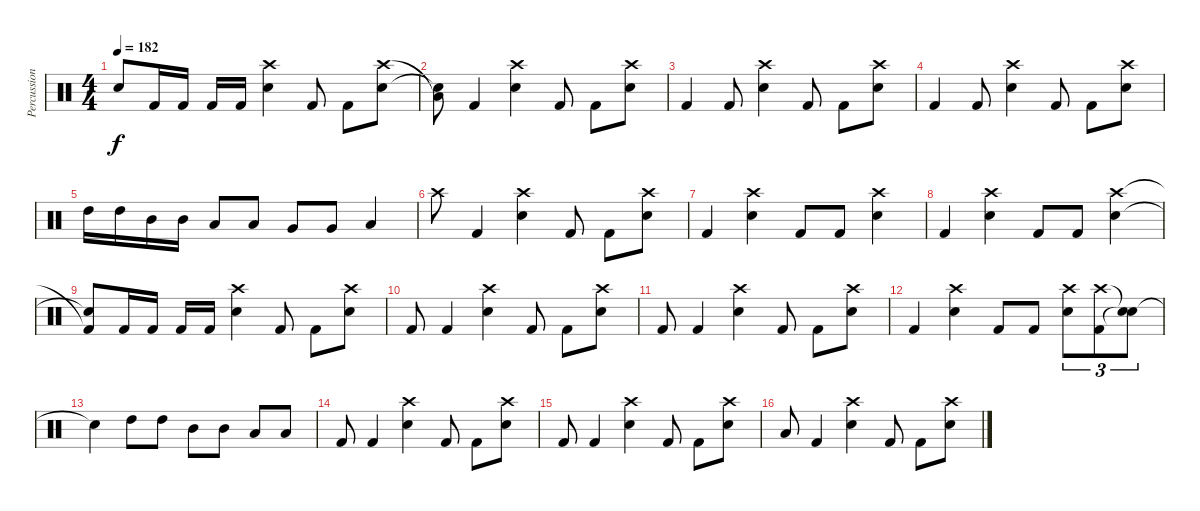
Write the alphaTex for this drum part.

\track ("Percussion" "Percussion") {instrument percussion}
\staff {score}
\articulation defaults
\ts (4 4)
\tempo 182
\clef neutral
\ks c "Snare (hit)"{t}.8{dy f} "Kick (hit) 2".16 "Kick (hit) 2".16 "Kick (hit) 2".16 "Kick (hit) 2".16
("Crash high (hit)" "Snare (hit) 2").4 "Kick (hit) 2".8 "Kick (hit) 2".8 ("Crash high (hit)" "Snare (hit) 2").8 |
("Low Floor Tom (hit)"{t} "Snare (hit)"{t}).8 "Kick (hit) 2".4 ("Crash high (hit)" "Snare (hit) 2").4 "Kick (hit) 2".8 "Kick (hit) 2".8 ("Crash high (hit)" "Snare (hit) 2").8 |
"Kick (hit) 2".4 "Kick (hit) 2".8 ("Crash high (hit)" "Snare (hit) 2").4 "Kick (hit) 2".8 "Kick (hit) 2".8 ("Crash high (hit)" "Snare (hit) 2").8 |
"Kick (hit) 2".4 "Kick (hit) 2".8 ("Crash high (hit)" "Snare (hit) 2").4 "Kick (hit) 2".8 "Kick (hit) 2".8 ("Crash high (hit)" "Snare (hit) 2").8 |
"High Tom (hit)".16 "High Tom (hit)".16 "Mid Tom (hit)".16 "Mid Tom (hit)".16 "Low Tom (hit)".8 "Low Tom (hit)".8 "Very Low Tom (hit)".8 "Very Low Tom (hit)".8 "Low Floor Tom (hit)".4 |
"Crash high (hit)".8 "Kick (hit) 2".4 ("Crash high (hit)" "Snare (hit) 2").4 "Kick (hit) 2".8 "Kick (hit) 2".8 ("Crash high (hit)" "Snare (hit) 2").8 |
"Kick (hit) 2".4 ("Crash high (hit)" "Snare (hit) 2").4 "Kick (hit) 2".8 "Kick (hit) 2".8 ("Crash high (hit)" "Snare (hit) 2").4 |
"Kick (hit) 2".4 ("Crash high (hit)" "Snare (hit) 2").4 "Kick (hit) 2".8 "Kick (hit) 2".8 ("Crash high (hit)" "Snare (hit) 2").4 |
("Kick (hit) 2"{t} "Snare (hit)"{t}).8 "Kick (hit) 2".16 "Kick (hit) 2".16 "Kick (hit) 2".16 "Kick (hit) 2".16 ("Crash high (hit)" "Snare (hit) 2").4 "Kick (hit) 2".8 "Kick (hit) 2".8 ("Crash high (hit)" "Snare (hit) 2").8 |
"Kick (hit) 2".8 "Kick (hit) 2".4 ("Crash high (hit)" "Snare (hit) 2").4 "Kick (hit) 2".8 "Kick (hit) 2".8 ("Crash high (hit)" "Snare (hit) 2").8 |
"Kick (hit) 2".8 "Kick (hit) 2".4 ("Crash high (hit)" "Snare (hit) 2").4 "Kick (hit) 2".8 "Kick (hit) 2".8 ("Crash high (hit)" "Snare (hit) 2").8 |
"Kick (hit) 2".4 ("Crash high (hit)" "Snare (hit) 2").4 "Kick (hit) 2".8 "Kick (hit) 2".8 ("Crash high (hit)" "Snare (hit) 2").8{tu (3 2)} ("Kick (hit) 2" "Crash high (hit)").8{tu (3 2)} ("Snare (hit)"{t} "Snare (hit)"{t}).8{tu (3 2)} |
"Snare (hit)"{t}.4 "High Tom (hit)".8 "High Tom (hit)".8 "Mid Tom (hit)".8 "Mid Tom (hit)".8 "Low Tom (hit)".8 "Low Tom (hit)".8 |
"Kick (hit) 2".8 "Kick (hit) 2".4 ("Crash high (hit)" "Snare (hit) 2").4 "Kick (hit) 2".8 "Kick (hit) 2".8 ("Crash high (hit)" "Snare (hit) 2").8 |
"Kick (hit) 2".8 "Kick (hit) 2".4 ("Crash high (hit)" "Snare (hit) 2").4 "Kick (hit) 2".8 "Kick (hit) 2".8 ("Crash high (hit)" "Snare (hit) 2").8 |
"Low Floor Tom (hit)".8 "Kick (hit) 2".4 ("Crash high (hit)" "Snare (hit) 2").4 "Kick (hit) 2".8 "Kick (hit) 2".8 ("Crash high (hit)" "Snare (hit) 2").8
